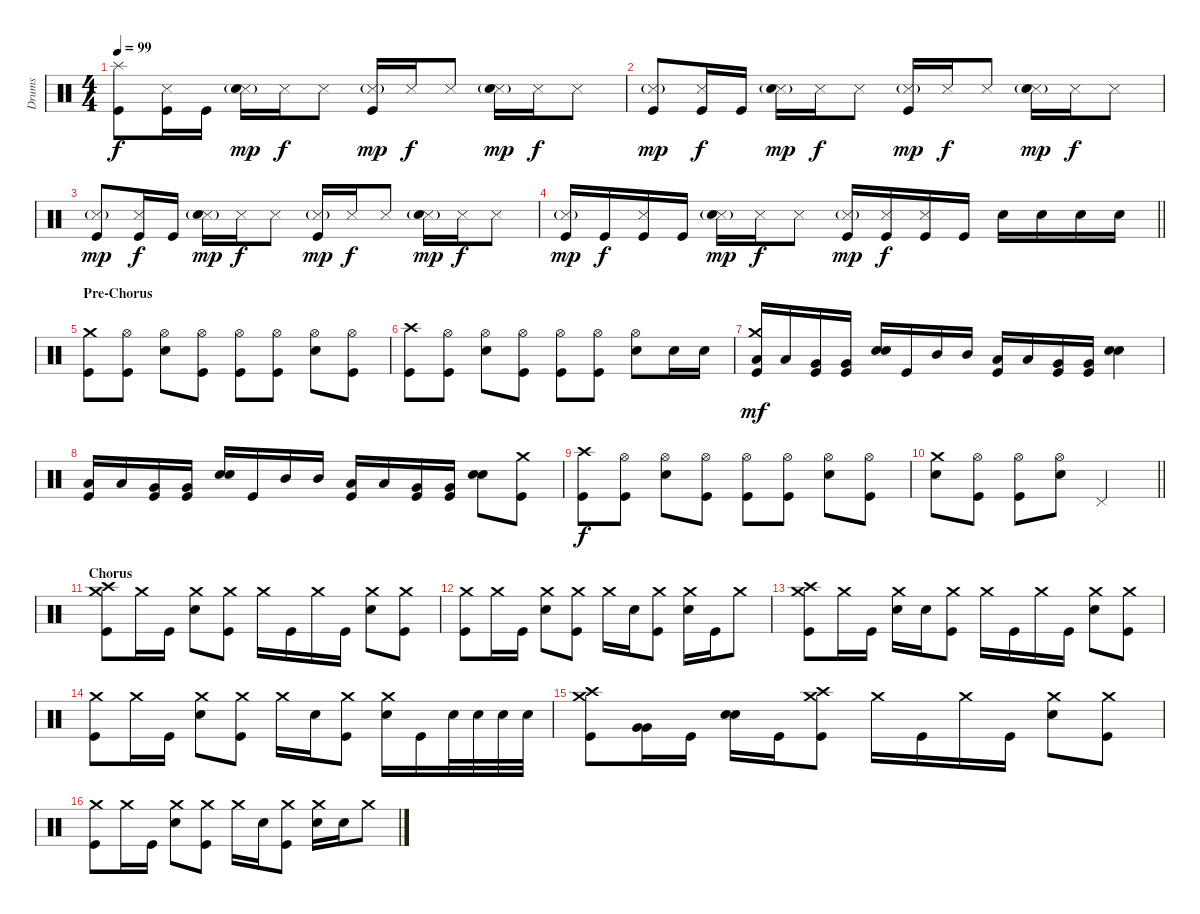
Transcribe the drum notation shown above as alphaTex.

\track ("Drums" "Drums") {instrument percussion}
\staff {score}
\articulation defaults
\ts (4 4)
\tempo 99
\clef neutral
\ks c
("Splash (hit)" "Kick (hit)").8{dy f} ("Snare (side stick) 3" "Kick (hit)").16 "Kick (hit)".16 ("Snare (side stick) 3"{g} "Snare (hit) 2").16{dy mp} "Snare (side stick) 3".16{dy f} "Snare (side stick) 3".8 ("Snare (side stick) 3"{g} "Kick (hit)").16{dy mp} "Snare (side stick) 3".16{dy f} "Snare (side stick) 3".8 ("Snare (side stick) 3"{g} "Snare (hit) 2").16{dy mp} "Snare (side stick) 3".16{dy f} "Snare (side stick) 3".8 |
("Snare (side stick) 3"{g} "Kick (hit)").8{dy mp} ("Snare (side stick) 3" "Kick (hit)").16{dy f} "Kick (hit)".16 ("Snare (side stick) 3"{g} "Snare (hit) 2").16{dy mp} "Snare (side stick) 3".16{dy f} "Snare (side stick) 3".8 ("Snare (side stick) 3"{g} "Kick (hit)").16{dy mp} "Snare (side stick) 3".16{dy f} "Snare (side stick) 3".8 ("Snare (side stick) 3"{g} "Snare (hit) 2").16{dy mp} "Snare (side stick) 3".16{dy f} "Snare (side stick) 3".8 |
("Snare (side stick) 3"{g} "Kick (hit)").8{dy mp} ("Snare (side stick) 3" "Kick (hit)").16{dy f} "Kick (hit)".16 ("Snare (side stick) 3"{g} "Snare (hit) 2").16{dy mp} "Snare (side stick) 3".16{dy f} "Snare (side stick) 3".8 ("Snare (side stick) 3"{g} "Kick (hit)").16{dy mp} "Snare (side stick) 3".16{dy f} "Snare (side stick) 3".8 ("Snare (side stick) 3"{g} "Snare (hit) 2").16{dy mp} "Snare (side stick) 3".16{dy f} "Snare (side stick) 3".8 |
\barLineRight lightlight
("Snare (side stick) 3"{g} "Kick (hit)").16{dy mp} "Kick (hit)".16{dy f} ("Snare (side stick) 3" "Kick (hit)").16 "Kick (hit)".16 ("Snare (side stick) 3"{g} "Snare (hit) 2").16{dy mp} "Snare (side stick) 3".16{dy f} "Snare (side stick) 3".8 ("Snare (side stick) 3"{g} "Kick (hit)").16{dy mp} ("Snare (side stick) 3" "Kick (hit)").16{dy f} ("Snare (side stick) 3" "Kick (hit)").16 "Kick (hit)".16 "Snare (hit) 2".16 "Snare (hit) 2".16 "Snare (hit) 2".16 "Snare (hit) 2".16 |
\section ("" "Pre-Chorus")
("Crash medium (hit)" "Kick (hit)").8 ("Hi-Hat (open)" "Kick (hit)").8 ("Hi-Hat (open)" "Snare (hit) 2").8 ("Hi-Hat (open)" "Kick (hit)").8 ("Hi-Hat (open)" "Kick (hit)").8 ("Hi-Hat (open)" "Kick (hit)").8 ("Hi-Hat (open)" "Snare (hit) 2").8 ("Hi-Hat (open)" "Kick (hit)").8 |
("Crash high (hit)" "Kick (hit)").8 ("Hi-Hat (open)" "Kick (hit)").8 ("Hi-Hat (open)" "Snare (hit) 2").8 ("Hi-Hat (open)" "Kick (hit)").8 ("Hi-Hat (open)" "Kick (hit)").8 ("Hi-Hat (open)" "Kick (hit)").8 ("Hi-Hat (open)" "Snare (hit) 2").8 "Snare (hit) 2".16 "Snare (hit) 2".16 |
("Crash medium (hit)" "Low Tom (hit)" "Kick (hit)").16{dy mf} "Low Tom (hit)".16 ("Very Low Tom (hit)" "Kick (hit)").16 ("Very Low Tom (hit)" "Kick (hit)").16 ("Snare (hit) 2" "Snare (hit) 2").16 "Kick (hit)".16 "Mid Tom (hit)".16 "Mid Tom (hit)".16 ("Low Tom (hit)" "Kick (hit)").16 "Low Tom (hit)".16 ("Very Low Tom (hit)" "Kick (hit)").16 ("Very Low Tom (hit)" "Kick (hit)").16 ("Snare (hit) 2" "Snare (hit) 2").4 |
("Low Tom (hit)" "Kick (hit)").16 "Low Tom (hit)".16 ("Very Low Tom (hit)" "Kick (hit)").16 ("Very Low Tom (hit)" "Kick (hit)").16 ("Snare (hit) 2" "Snare (hit) 2").16 "Kick (hit)".16 "Mid Tom (hit)".16 "Mid Tom (hit)".16 ("Low Tom (hit)" "Kick (hit)").16 "Low Tom (hit)".16 ("Very Low Tom (hit)" "Kick (hit)").16 ("Very Low Tom (hit)" "Kick (hit)").16 ("Snare (hit) 2" "Snare (hit) 2").8 ("Crash medium (hit)" "Kick (hit)").8 |
("Crash high (hit)" "Kick (hit)").8{dy f} ("Hi-Hat (open)" "Kick (hit)").8 ("Hi-Hat (open)" "Snare (hit) 2").8 ("Hi-Hat (open)" "Kick (hit)").8 ("Hi-Hat (open)" "Kick (hit)").8 ("Hi-Hat (open)" "Kick (hit)").8 ("Hi-Hat (open)" "Snare (hit) 2").8 ("Hi-Hat (open)" "Kick (hit)").8 |
\barLineRight lightlight
("Crash medium (hit)" "Snare (hit) 2").8 ("Hi-Hat (open)" "Kick (hit)").8 ("Hi-Hat (open)" "Kick (hit)").8 ("Hi-Hat (open)" "Snare (hit) 2").8 "Pedal Hi-Hat (hit)".2 |
\section ("" "Chorus")
("Crash high (hit)" "Crash medium (hit)" "Kick (hit)").8 "Crash medium (hit)".16 "Kick (hit)".16 ("Crash medium (hit)" "Snare (hit) 2").8 ("Crash medium (hit)" "Kick (hit)").8 "Crash medium (hit)".16 "Kick (hit)".16 "Crash medium (hit)".16 "Kick (hit)".16 ("Crash medium (hit)" "Snare (hit) 2").8 ("Crash medium (hit)" "Kick (hit)").8 |
("Crash medium (hit)" "Kick (hit)").8 "Crash medium (hit)".16 "Kick (hit)".16 ("Crash medium (hit)" "Snare (hit) 2").8 ("Crash medium (hit)" "Kick (hit)").8 "Crash medium (hit)".16 "Snare (hit) 2".16 ("Crash medium (hit)" "Kick (hit)").8 ("Crash medium (hit)" "Snare (hit) 2").16 "Kick (hit)".16 "Crash medium (hit)".8 |
("Crash high (hit)" "Crash medium (hit)" "Kick (hit)").8 "Crash medium (hit)".16 "Kick (hit)".16 ("Crash medium (hit)" "Snare (hit) 2").16 "Snare (hit) 2".16 ("Crash medium (hit)" "Kick (hit)").8 "Crash medium (hit)".16 "Kick (hit)".16 "Crash medium (hit)".16 "Kick (hit)".16 ("Crash medium (hit)" "Snare (hit) 2").8 ("Crash medium (hit)" "Kick (hit)").8 |
("Crash medium (hit)" "Kick (hit)").8 "Crash medium (hit)".16 "Kick (hit)".16 ("Crash medium (hit)" "Snare (hit) 2").8 ("Crash medium (hit)" "Kick (hit)").8 "Crash medium (hit)".16 "Snare (hit) 2".16 ("Crash medium (hit)" "Kick (hit)").8 ("Crash medium (hit)" "Snare (hit) 2").16 "Kick (hit)".16 "Snare (hit) 2".32 "Snare (hit) 2".32 "Snare (hit) 2".32 "Snare (hit) 2".32 |
("Crash medium (hit)" "Crash high (hit)" "Kick (hit)").8 ("Very Low Tom (hit)" "Very Low Tom (hit)").16 "Kick (hit)".16 ("Snare (hit) 2" "Snare (hit) 2").16 "Kick (hit)".16 ("Crash high (hit)" "Crash medium (hit)" "Kick (hit)").8 "Crash medium (hit)".16 "Kick (hit)".16 "Crash medium (hit)".16 "Kick (hit)".16 ("Crash medium (hit)" "Snare (hit) 2").8 ("Crash medium (hit)" "Kick (hit)").8 |
("Crash medium (hit)" "Kick (hit)").8 "Crash medium (hit)".16 "Kick (hit)".16 ("Crash medium (hit)" "Snare (hit) 2").8 ("Crash medium (hit)" "Kick (hit)").8 "Crash medium (hit)".16 "Snare (hit) 2".16 ("Crash medium (hit)" "Kick (hit)").8 ("Crash medium (hit)" "Snare (hit) 2").16 "Snare (hit) 2".16 "Crash medium (hit)".8
